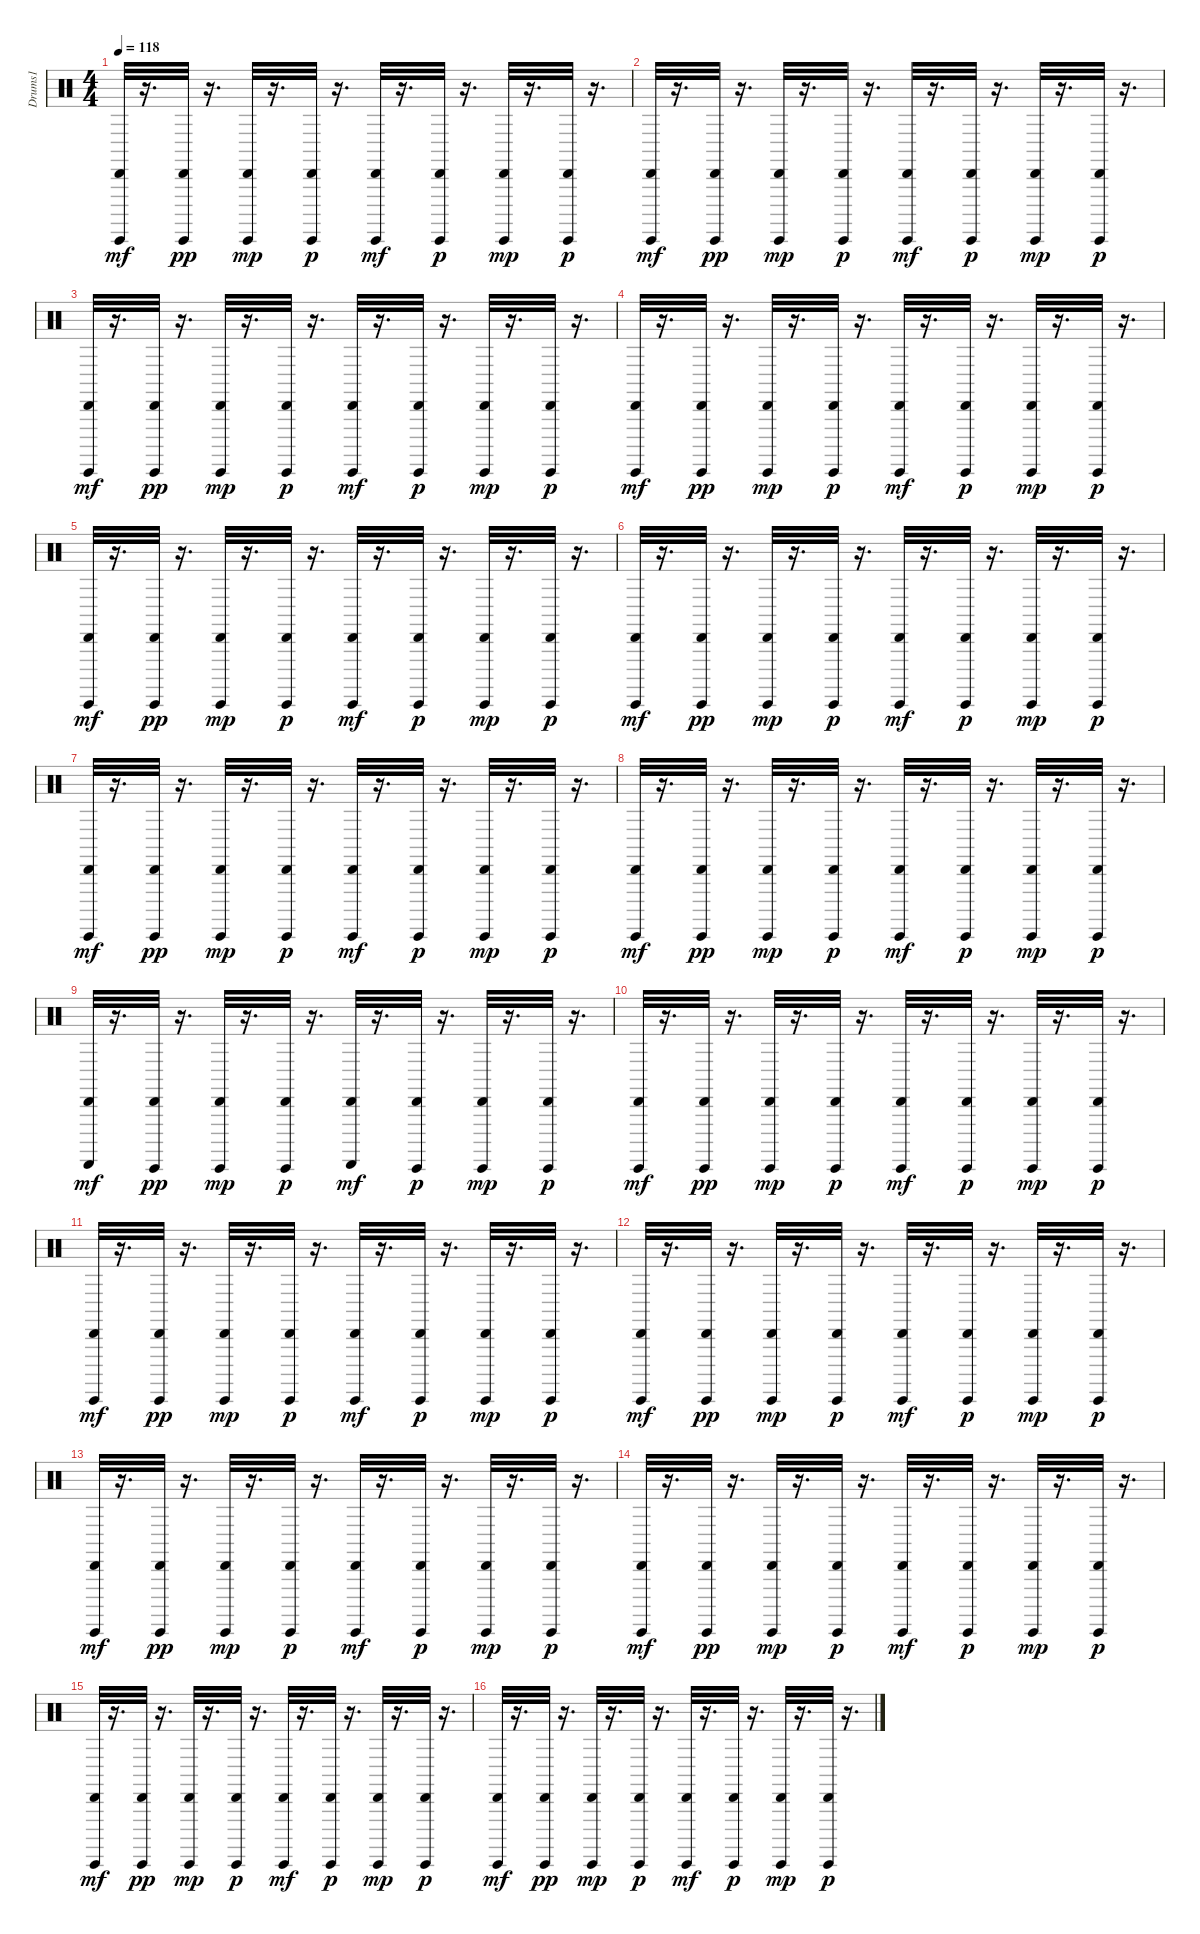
\track ("Drums1" "Drums1") {instrument percussion}
\staff {score}
\articulation defaults
\ts (4 4)
\tempo 118
\clef neutral
\ks c
("Guiro (hit)" "Cabasa (hit)").32{dy mf} r.16{d} ("Guiro (hit)" "Cabasa (hit)").32{dy pp} r.16{d} ("Guiro (hit)" "Cabasa (hit)").32{dy mp} r.16{d} ("Guiro (hit)" "Cabasa (hit)").32{dy p} r.16{d} ("Guiro (hit)" "Cabasa (hit)").32{dy mf} r.16{d} ("Guiro (hit)" "Cabasa (hit)").32{dy p} r.16{d} ("Guiro (hit)" "Cabasa (hit)").32{dy mp} r.16{d} ("Guiro (hit)" "Cabasa (hit)").32{dy p} r.16{d} |
("Guiro (hit)" "Cabasa (hit)").32{dy mf} r.16{d} ("Guiro (hit)" "Cabasa (hit)").32{dy pp} r.16{d} ("Guiro (hit)" "Cabasa (hit)").32{dy mp} r.16{d} ("Guiro (hit)" "Cabasa (hit)").32{dy p} r.16{d} ("Guiro (hit)" "Cabasa (hit)").32{dy mf} r.16{d} ("Guiro (hit)" "Cabasa (hit)").32{dy p} r.16{d} ("Guiro (hit)" "Cabasa (hit)").32{dy mp} r.16{d} ("Guiro (hit)" "Cabasa (hit)").32{dy p} r.16{d} |
("Guiro (hit)" "Cabasa (hit)").32{dy mf} r.16{d} ("Guiro (hit)" "Cabasa (hit)").32{dy pp} r.16{d} ("Guiro (hit)" "Cabasa (hit)").32{dy mp} r.16{d} ("Guiro (hit)" "Cabasa (hit)").32{dy p} r.16{d} ("Guiro (hit)" "Cabasa (hit)").32{dy mf} r.16{d} ("Guiro (hit)" "Cabasa (hit)").32{dy p} r.16{d} ("Guiro (hit)" "Cabasa (hit)").32{dy mp} r.16{d} ("Guiro (hit)" "Cabasa (hit)").32{dy p} r.16{d} |
("Guiro (hit)" "Cabasa (hit)").32{dy mf} r.16{d} ("Guiro (hit)" "Cabasa (hit)").32{dy pp} r.16{d} ("Guiro (hit)" "Cabasa (hit)").32{dy mp} r.16{d} ("Guiro (hit)" "Cabasa (hit)").32{dy p} r.16{d} ("Guiro (hit)" "Cabasa (hit)").32{dy mf} r.16{d} ("Guiro (hit)" "Cabasa (hit)").32{dy p} r.16{d} ("Guiro (hit)" "Cabasa (hit)").32{dy mp} r.16{d} ("Guiro (hit)" "Cabasa (hit)").32{dy p} r.16{d} |
("Guiro (hit)" "Cabasa (hit)").32{dy mf} r.16{d} ("Guiro (hit)" "Cabasa (hit)").32{dy pp} r.16{d} ("Guiro (hit)" "Cabasa (hit)").32{dy mp} r.16{d} ("Guiro (hit)" "Cabasa (hit)").32{dy p} r.16{d} ("Guiro (hit)" "Cabasa (hit)").32{dy mf} r.16{d} ("Guiro (hit)" "Cabasa (hit)").32{dy p} r.16{d} ("Guiro (hit)" "Cabasa (hit)").32{dy mp} r.16{d} ("Guiro (hit)" "Cabasa (hit)").32{dy p} r.16{d} |
("Guiro (hit)" "Cabasa (hit)").32{dy mf} r.16{d} ("Guiro (hit)" "Cabasa (hit)").32{dy pp} r.16{d} ("Guiro (hit)" "Cabasa (hit)").32{dy mp} r.16{d} ("Guiro (hit)" "Cabasa (hit)").32{dy p} r.16{d} ("Guiro (hit)" "Cabasa (hit)").32{dy mf} r.16{d} ("Guiro (hit)" "Cabasa (hit)").32{dy p} r.16{d} ("Guiro (hit)" "Cabasa (hit)").32{dy mp} r.16{d} ("Guiro (hit)" "Cabasa (hit)").32{dy p} r.16{d} |
("Guiro (hit)" "Cabasa (hit)").32{dy mf} r.16{d} ("Guiro (hit)" "Cabasa (hit)").32{dy pp} r.16{d} ("Guiro (hit)" "Cabasa (hit)").32{dy mp} r.16{d} ("Guiro (hit)" "Cabasa (hit)").32{dy p} r.16{d} ("Guiro (hit)" "Cabasa (hit)").32{dy mf} r.16{d} ("Guiro (hit)" "Cabasa (hit)").32{dy p} r.16{d} ("Guiro (hit)" "Cabasa (hit)").32{dy mp} r.16{d} ("Guiro (hit)" "Cabasa (hit)").32{dy p} r.16{d} |
("Guiro (hit)" "Cabasa (hit)").32{dy mf} r.16{d} ("Guiro (hit)" "Cabasa (hit)").32{dy pp} r.16{d} ("Guiro (hit)" "Cabasa (hit)").32{dy mp} r.16{d} ("Guiro (hit)" "Cabasa (hit)").32{dy p} r.16{d} ("Guiro (hit)" "Cabasa (hit)").32{dy mf} r.16{d} ("Guiro (hit)" "Cabasa (hit)").32{dy p} r.16{d} ("Guiro (hit)" "Cabasa (hit)").32{dy mp} r.16{d} ("Guiro (hit)" "Cabasa (hit)").32{dy p} r.16{d} |
("Guiro (scrap-return)" "Cabasa (hit)").32{dy mf} r.16{d} ("Guiro (hit)" "Cabasa (hit)").32{dy pp} r.16{d} ("Guiro (hit)" "Cabasa (hit)").32{dy mp} r.16{d} ("Guiro (hit)" "Cabasa (hit)").32{dy p} r.16{d} ("Guiro (scrap-return)" "Cabasa (hit)").32{dy mf} r.16{d} ("Guiro (hit)" "Cabasa (hit)").32{dy p} r.16{d} ("Guiro (hit)" "Cabasa (hit)").32{dy mp} r.16{d} ("Guiro (hit)" "Cabasa (hit)").32{dy p} r.16{d} |
("Guiro (hit)" "Cabasa (hit)").32{dy mf} r.16{d} ("Guiro (hit)" "Cabasa (hit)").32{dy pp} r.16{d} ("Guiro (hit)" "Cabasa (hit)").32{dy mp} r.16{d} ("Guiro (hit)" "Cabasa (hit)").32{dy p} r.16{d} ("Guiro (hit)" "Cabasa (hit)").32{dy mf} r.16{d} ("Guiro (hit)" "Cabasa (hit)").32{dy p} r.16{d} ("Guiro (hit)" "Cabasa (hit)").32{dy mp} r.16{d} ("Guiro (hit)" "Cabasa (hit)").32{dy p} r.16{d} |
("Guiro (hit)" "Cabasa (hit)").32{dy mf} r.16{d} ("Guiro (hit)" "Cabasa (hit)").32{dy pp} r.16{d} ("Guiro (hit)" "Cabasa (hit)").32{dy mp} r.16{d} ("Guiro (hit)" "Cabasa (hit)").32{dy p} r.16{d} ("Guiro (hit)" "Cabasa (hit)").32{dy mf} r.16{d} ("Guiro (hit)" "Cabasa (hit)").32{dy p} r.16{d} ("Guiro (hit)" "Cabasa (hit)").32{dy mp} r.16{d} ("Guiro (hit)" "Cabasa (hit)").32{dy p} r.16{d} |
("Guiro (hit)" "Cabasa (hit)").32{dy mf} r.16{d} ("Guiro (hit)" "Cabasa (hit)").32{dy pp} r.16{d} ("Guiro (hit)" "Cabasa (hit)").32{dy mp} r.16{d} ("Guiro (hit)" "Cabasa (hit)").32{dy p} r.16{d} ("Guiro (hit)" "Cabasa (hit)").32{dy mf} r.16{d} ("Guiro (hit)" "Cabasa (hit)").32{dy p} r.16{d} ("Guiro (hit)" "Cabasa (hit)").32{dy mp} r.16{d} ("Guiro (hit)" "Cabasa (hit)").32{dy p} r.16{d} |
("Guiro (hit)" "Cabasa (hit)").32{dy mf} r.16{d} ("Guiro (hit)" "Cabasa (hit)").32{dy pp} r.16{d} ("Guiro (hit)" "Cabasa (hit)").32{dy mp} r.16{d} ("Guiro (hit)" "Cabasa (hit)").32{dy p} r.16{d} ("Guiro (hit)" "Cabasa (hit)").32{dy mf} r.16{d} ("Guiro (hit)" "Cabasa (hit)").32{dy p} r.16{d} ("Guiro (hit)" "Cabasa (hit)").32{dy mp} r.16{d} ("Guiro (hit)" "Cabasa (hit)").32{dy p} r.16{d} |
("Guiro (hit)" "Cabasa (hit)").32{dy mf} r.16{d} ("Guiro (hit)" "Cabasa (hit)").32{dy pp} r.16{d} ("Guiro (hit)" "Cabasa (hit)").32{dy mp} r.16{d} ("Guiro (hit)" "Cabasa (hit)").32{dy p} r.16{d} ("Guiro (hit)" "Cabasa (hit)").32{dy mf} r.16{d} ("Guiro (hit)" "Cabasa (hit)").32{dy p} r.16{d} ("Guiro (hit)" "Cabasa (hit)").32{dy mp} r.16{d} ("Guiro (hit)" "Cabasa (hit)").32{dy p} r.16{d} |
("Guiro (hit)" "Cabasa (hit)").32{dy mf} r.16{d} ("Guiro (hit)" "Cabasa (hit)").32{dy pp} r.16{d} ("Guiro (hit)" "Cabasa (hit)").32{dy mp} r.16{d} ("Guiro (hit)" "Cabasa (hit)").32{dy p} r.16{d} ("Guiro (hit)" "Cabasa (hit)").32{dy mf} r.16{d} ("Guiro (hit)" "Cabasa (hit)").32{dy p} r.16{d} ("Guiro (hit)" "Cabasa (hit)").32{dy mp} r.16{d} ("Guiro (hit)" "Cabasa (hit)").32{dy p} r.16{d} |
("Guiro (hit)" "Cabasa (hit)").32{dy mf} r.16{d} ("Guiro (hit)" "Cabasa (hit)").32{dy pp} r.16{d} ("Guiro (hit)" "Cabasa (hit)").32{dy mp} r.16{d} ("Guiro (hit)" "Cabasa (hit)").32{dy p} r.16{d} ("Guiro (hit)" "Cabasa (hit)").32{dy mf} r.16{d} ("Guiro (hit)" "Cabasa (hit)").32{dy p} r.16{d} ("Guiro (hit)" "Cabasa (hit)").32{dy mp} r.16{d} ("Guiro (hit)" "Cabasa (hit)").32{dy p} r.16{d}
